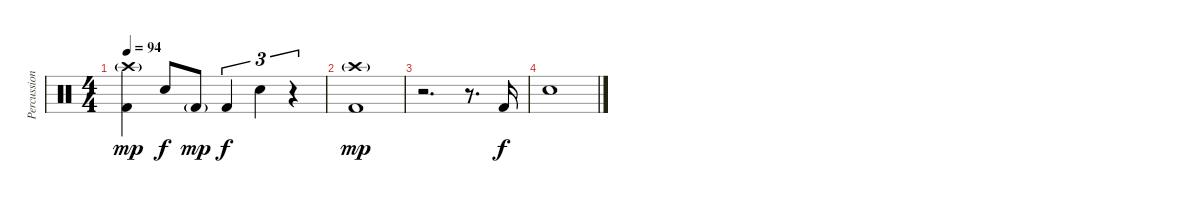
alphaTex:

\track ("Percussion" "Percussion") {instrument percussion}
\staff {score}
\articulation defaults
\ts (4 4)
\tempo 94
\clef neutral
\ks c
("Crash high (hit)"{g} "Kick (hit) 2").4{dy mp} "Snare (hit) 2".8{dy f} "Kick (hit) 2"{g}.8{dy mp} "Kick (hit) 2".4{tu (3 2) dy f} "Snare (hit) 2".4{tu (3 2)} r.4{tu (3 2)} |
("Crash high (hit)"{g} "Kick (hit) 2").1{dy mp} |
r.2{d} r.8{d} "Kick (hit) 2".16{dy f} |
"Snare (hit) 2".1
